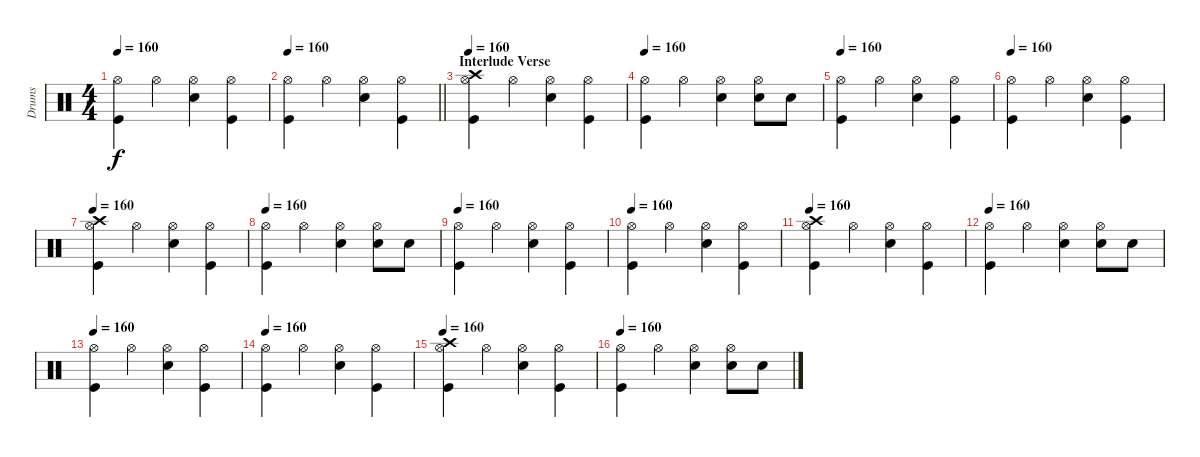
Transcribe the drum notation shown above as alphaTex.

\track ("Drums" "Drums") {instrument percussion}
\staff {score}
\articulation defaults
\ts (4 4)
\tempo 160
\clef neutral
\ks c
("Hi-Hat (open)" "Kick (hit)").4{dy f} "Hi-Hat (open)".4 ("Hi-Hat (open)" "Snare (hit) 2").4 ("Hi-Hat (open)" "Kick (hit)").4 |
\tempo 160
\barLineRight lightlight
("Hi-Hat (open)" "Kick (hit)").4 "Hi-Hat (open)".4 ("Hi-Hat (open)" "Snare (hit) 2").4 ("Hi-Hat (open)" "Kick (hit)").4 |
\section ("" "Interlude Verse")
\tempo 160
("Crash high (hit)" "Hi-Hat (open)" "Kick (hit)").4 "Hi-Hat (open)".4 ("Hi-Hat (open)" "Snare (hit) 2").4 ("Hi-Hat (open)" "Kick (hit)").4 |
\tempo 160
("Hi-Hat (open)" "Kick (hit)").4 "Hi-Hat (open)".4 ("Hi-Hat (open)" "Snare (hit) 2").4 ("Hi-Hat (open)" "Snare (hit) 2").8 "Snare (hit) 2".8 |
\tempo 160
("Hi-Hat (open)" "Kick (hit)").4 "Hi-Hat (open)".4 ("Hi-Hat (open)" "Snare (hit) 2").4 ("Hi-Hat (open)" "Kick (hit)").4 |
\tempo 160
("Hi-Hat (open)" "Kick (hit)").4 "Hi-Hat (open)".4 ("Hi-Hat (open)" "Snare (hit) 2").4 ("Hi-Hat (open)" "Kick (hit)").4 |
\tempo 160
("Crash high (hit)" "Hi-Hat (open)" "Kick (hit)").4 "Hi-Hat (open)".4 ("Hi-Hat (open)" "Snare (hit) 2").4 ("Hi-Hat (open)" "Kick (hit)").4 |
\tempo 160
("Hi-Hat (open)" "Kick (hit)").4 "Hi-Hat (open)".4 ("Hi-Hat (open)" "Snare (hit) 2").4 ("Hi-Hat (open)" "Snare (hit) 2").8 "Snare (hit) 2".8 |
\tempo 160
("Hi-Hat (open)" "Kick (hit)").4 "Hi-Hat (open)".4 ("Hi-Hat (open)" "Snare (hit) 2").4 ("Hi-Hat (open)" "Kick (hit)").4 |
\tempo 160
("Hi-Hat (open)" "Kick (hit)").4 "Hi-Hat (open)".4 ("Hi-Hat (open)" "Snare (hit) 2").4 ("Hi-Hat (open)" "Kick (hit)").4 |
\tempo 160
("Crash high (hit)" "Hi-Hat (open)" "Kick (hit)").4 "Hi-Hat (open)".4 ("Hi-Hat (open)" "Snare (hit) 2").4 ("Hi-Hat (open)" "Kick (hit)").4 |
\tempo 160
("Hi-Hat (open)" "Kick (hit)").4 "Hi-Hat (open)".4 ("Hi-Hat (open)" "Snare (hit) 2").4 ("Hi-Hat (open)" "Snare (hit) 2").8 "Snare (hit) 2".8 |
\tempo 160
("Hi-Hat (open)" "Kick (hit)").4 "Hi-Hat (open)".4 ("Hi-Hat (open)" "Snare (hit) 2").4 ("Hi-Hat (open)" "Kick (hit)").4 |
\tempo 160
("Hi-Hat (open)" "Kick (hit)").4 "Hi-Hat (open)".4 ("Hi-Hat (open)" "Snare (hit) 2").4 ("Hi-Hat (open)" "Kick (hit)").4 |
\tempo 160
("Crash high (hit)" "Hi-Hat (open)" "Kick (hit)").4 "Hi-Hat (open)".4 ("Hi-Hat (open)" "Snare (hit) 2").4 ("Hi-Hat (open)" "Kick (hit)").4 |
\tempo 160
("Hi-Hat (open)" "Kick (hit)").4 "Hi-Hat (open)".4 ("Hi-Hat (open)" "Snare (hit) 2").4 ("Hi-Hat (open)" "Snare (hit) 2").8 "Snare (hit) 2".8
